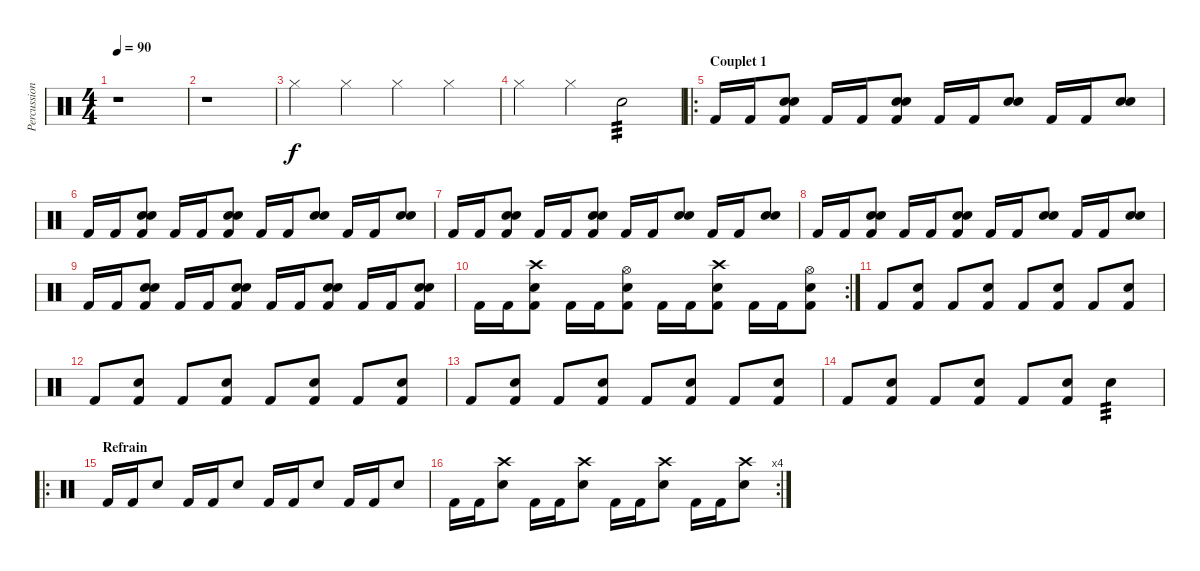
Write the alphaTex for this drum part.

\track ("Percussions" "Percussion") {instrument percussion}
\staff {score}
\articulation defaults
\ts (4 4)
\tempo 90
\clef neutral
\ks c
r.1{dy f} |
r.1 |
"Hi-Hat (closed)".4 "Hi-Hat (closed)".4 "Hi-Hat (closed)".4 "Hi-Hat (closed)".4 |
"Hi-Hat (closed)".4 "Hi-Hat (closed)".4 "Snare (hit) 2".2{tp 3} |
\ro
\section ("" "Couplet 1")
"Kick (hit) 2".16 "Kick (hit) 2".16 ("Electric Snare (hit)" "Snare (hit) 2" "Kick (hit) 2").8 "Kick (hit) 2".16 "Kick (hit) 2".16 ("Electric Snare (hit)" "Snare (hit) 2" "Kick (hit) 2").8 "Kick (hit) 2".16 "Kick (hit) 2".16 ("Electric Snare (hit)" "Snare (hit) 2").8 "Kick (hit) 2".16 "Kick (hit) 2".16 ("Electric Snare (hit)" "Snare (hit) 2").8 |
"Kick (hit) 2".16 "Kick (hit) 2".16 ("Electric Snare (hit)" "Snare (hit) 2" "Kick (hit) 2").8 "Kick (hit) 2".16 "Kick (hit) 2".16 ("Electric Snare (hit)" "Snare (hit) 2" "Kick (hit) 2").8 "Kick (hit) 2".16 "Kick (hit) 2".16 ("Electric Snare (hit)" "Snare (hit) 2").8 "Kick (hit) 2".16 "Kick (hit) 2".16 ("Electric Snare (hit)" "Snare (hit) 2").8 |
"Kick (hit) 2".16 "Kick (hit) 2".16 ("Electric Snare (hit)" "Snare (hit) 2" "Kick (hit) 2").8 "Kick (hit) 2".16 "Kick (hit) 2".16 ("Electric Snare (hit)" "Snare (hit) 2" "Kick (hit) 2").8 "Kick (hit) 2".16 "Kick (hit) 2".16 ("Electric Snare (hit)" "Snare (hit) 2").8 "Kick (hit) 2".16 "Kick (hit) 2".16 ("Electric Snare (hit)" "Snare (hit) 2").8 |
"Kick (hit) 2".16 "Kick (hit) 2".16 ("Electric Snare (hit)" "Snare (hit) 2" "Kick (hit) 2").8 "Kick (hit) 2".16 "Kick (hit) 2".16 ("Electric Snare (hit)" "Snare (hit) 2" "Kick (hit) 2").8 "Kick (hit) 2".16 "Kick (hit) 2".16 ("Electric Snare (hit)" "Snare (hit) 2").8 "Kick (hit) 2".16 "Kick (hit) 2".16 ("Electric Snare (hit)" "Snare (hit) 2").8 |
"Kick (hit) 2".16 "Kick (hit) 2".16 ("Electric Snare (hit)" "Snare (hit) 2" "Kick (hit) 2").8 "Kick (hit) 2".16 "Kick (hit) 2".16 ("Electric Snare (hit)" "Snare (hit) 2" "Kick (hit) 2").8 "Kick (hit) 2".16 "Kick (hit) 2".16 ("Electric Snare (hit)" "Snare (hit) 2" "Kick (hit) 2").8 "Kick (hit) 2".16 "Kick (hit) 2".16 ("Electric Snare (hit)" "Snare (hit) 2" "Kick (hit) 2").8 |
\rc 2 "Kick (hit) 2".16 "Kick (hit) 2".16
("Crash high (hit)" "Snare (hit) 2" "Kick (hit) 2").8 "Kick (hit) 2".16 "Kick (hit) 2".16 ("Hi-Hat (open)" "Snare (hit) 2" "Kick (hit) 2").8 "Kick (hit) 2".16 "Kick (hit) 2".16 ("Crash high (hit)" "Snare (hit) 2" "Kick (hit) 2").8 "Kick (hit) 2".16 "Kick (hit) 2".16 ("Hi-Hat (open)" "Snare (hit) 2" "Kick (hit) 2").8 |
"Kick (hit) 2".8 ("Electric Snare (hit)" "Kick (hit) 2").8 "Kick (hit) 2".8 ("Electric Snare (hit)" "Kick (hit) 2").8 "Kick (hit) 2".8 ("Electric Snare (hit)" "Kick (hit) 2").8 "Kick (hit) 2".8 ("Electric Snare (hit)" "Kick (hit) 2").8 |
"Kick (hit) 2".8 ("Electric Snare (hit)" "Kick (hit) 2").8 "Kick (hit) 2".8 ("Electric Snare (hit)" "Kick (hit) 2").8 "Kick (hit) 2".8 ("Electric Snare (hit)" "Kick (hit) 2").8 "Kick (hit) 2".8 ("Electric Snare (hit)" "Kick (hit) 2").8 |
"Kick (hit) 2".8 ("Electric Snare (hit)" "Kick (hit) 2").8 "Kick (hit) 2".8 ("Electric Snare (hit)" "Kick (hit) 2").8 "Kick (hit) 2".8 ("Electric Snare (hit)" "Kick (hit) 2").8 "Kick (hit) 2".8 ("Electric Snare (hit)" "Kick (hit) 2").8 |
"Kick (hit) 2".8 ("Electric Snare (hit)" "Kick (hit) 2").8 "Kick (hit) 2".8 ("Electric Snare (hit)" "Kick (hit) 2").8 "Kick (hit) 2".8 ("Electric Snare (hit)" "Kick (hit) 2").8 "Snare (hit) 2".4{tp 3} |
\ro
\section ("" "Refrain")
"Kick (hit) 2".16 "Kick (hit) 2".16 "Electric Snare (hit)".8 "Kick (hit) 2".16 "Kick (hit) 2".16 "Electric Snare (hit)".8 "Kick (hit) 2".16 "Kick (hit) 2".16 "Electric Snare (hit)".8 "Kick (hit) 2".16 "Kick (hit) 2".16 "Electric Snare (hit)".8 |
\rc 4 "Kick (hit) 2".16 "Kick (hit) 2".16
("Crash high (hit)" "Electric Snare (hit)").8 "Kick (hit) 2".16 "Kick (hit) 2".16 ("Crash high (hit)" "Electric Snare (hit)").8 "Kick (hit) 2".16 "Kick (hit) 2".16 ("Crash high (hit)" "Electric Snare (hit)").8 "Kick (hit) 2".16 "Kick (hit) 2".16 ("Crash high (hit)" "Electric Snare (hit)").8
